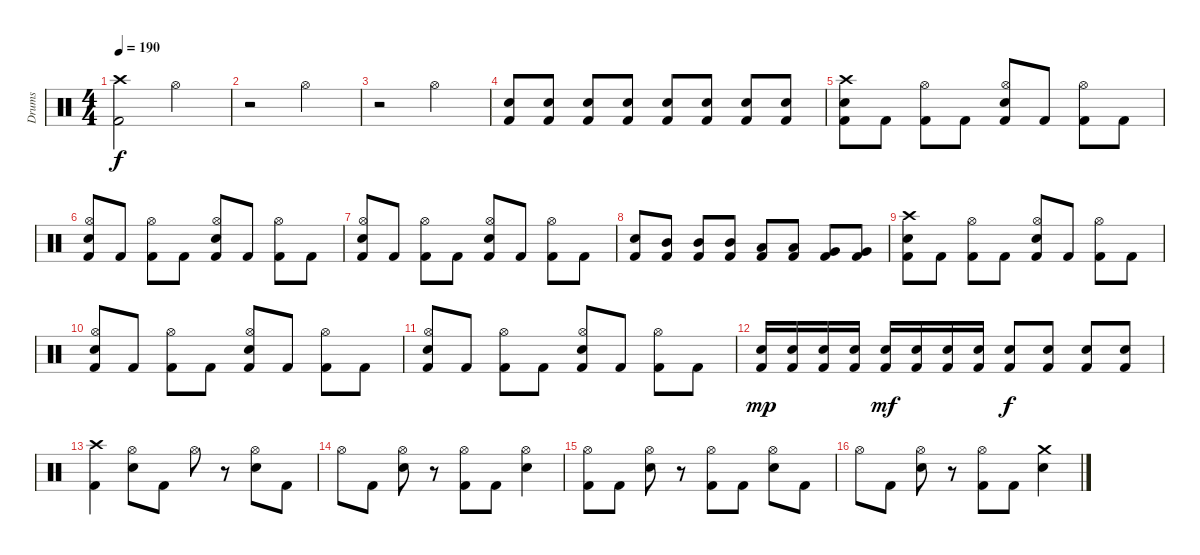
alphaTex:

\track ("Drums" "Drums") {instrument percussion}
\staff {score}
\articulation defaults
\ts (4 4)
\tempo 190
\clef neutral
\ks c
("Crash high (hit)" "Kick (hit) 2").2{dy f} "Hi-Hat (open)".2 |
r.2 "Hi-Hat (open)".2 |
r.2 "Hi-Hat (open)".2 |
("Snare (hit) 2" "Kick (hit) 2").8 ("Snare (hit) 2" "Kick (hit) 2").8 ("Snare (hit) 2" "Kick (hit) 2").8 ("Snare (hit) 2" "Kick (hit) 2").8 ("Snare (hit) 2" "Kick (hit) 2").8 ("Snare (hit) 2" "Kick (hit) 2").8 ("Snare (hit) 2" "Kick (hit) 2").8 ("Snare (hit) 2" "Kick (hit) 2").8 |
("Crash high (hit)" "Snare (hit) 2" "Kick (hit) 2").8 "Kick (hit) 2".8 ("Hi-Hat (open)" "Kick (hit) 2").8 "Kick (hit) 2".8 ("Hi-Hat (open)" "Snare (hit) 2" "Kick (hit) 2").8 "Kick (hit) 2".8 ("Hi-Hat (open)" "Kick (hit) 2").8 "Kick (hit) 2".8 |
("Hi-Hat (open)" "Snare (hit) 2" "Kick (hit) 2").8 "Kick (hit) 2".8 ("Hi-Hat (open)" "Kick (hit) 2").8 "Kick (hit) 2".8 ("Hi-Hat (open)" "Snare (hit) 2" "Kick (hit) 2").8 "Kick (hit) 2".8 ("Hi-Hat (open)" "Kick (hit) 2").8 "Kick (hit) 2".8 |
("Hi-Hat (open)" "Snare (hit) 2" "Kick (hit) 2").8 "Kick (hit) 2".8 ("Hi-Hat (open)" "Kick (hit) 2").8 "Kick (hit) 2".8 ("Hi-Hat (open)" "Snare (hit) 2" "Kick (hit) 2").8 "Kick (hit) 2".8 ("Hi-Hat (open)" "Kick (hit) 2").8 "Kick (hit) 2".8 |
("Snare (hit) 2" "Kick (hit) 2").8 ("Mid Tom (hit)" "Kick (hit) 2").8 ("Mid Tom (hit)" "Kick (hit) 2").8 ("Mid Tom (hit)" "Kick (hit) 2").8 ("Low Tom (hit)" "Kick (hit) 2").8 ("Low Tom (hit)" "Kick (hit) 2").8 ("Very Low Tom (hit)" "Kick (hit) 2").8 ("Very Low Tom (hit)" "Kick (hit) 2").8 |
("Crash high (hit)" "Snare (hit) 2" "Kick (hit) 2").8 "Kick (hit) 2".8 ("Hi-Hat (open)" "Kick (hit) 2").8 "Kick (hit) 2".8 ("Hi-Hat (open)" "Snare (hit) 2" "Kick (hit) 2").8 "Kick (hit) 2".8 ("Hi-Hat (open)" "Kick (hit) 2").8 "Kick (hit) 2".8 |
("Hi-Hat (open)" "Snare (hit) 2" "Kick (hit) 2").8 "Kick (hit) 2".8 ("Hi-Hat (open)" "Kick (hit) 2").8 "Kick (hit) 2".8 ("Hi-Hat (open)" "Snare (hit) 2" "Kick (hit) 2").8 "Kick (hit) 2".8 ("Hi-Hat (open)" "Kick (hit) 2").8 "Kick (hit) 2".8 |
("Hi-Hat (open)" "Snare (hit) 2" "Kick (hit) 2").8 "Kick (hit) 2".8 ("Hi-Hat (open)" "Kick (hit) 2").8 "Kick (hit) 2".8 ("Hi-Hat (open)" "Snare (hit) 2" "Kick (hit) 2").8 "Kick (hit) 2".8 ("Hi-Hat (open)" "Kick (hit) 2").8 "Kick (hit) 2".8 |
("Snare (hit) 2" "Kick (hit) 2").16{dy mp} ("Snare (hit) 2" "Kick (hit) 2").16 ("Snare (hit) 2" "Kick (hit) 2").16 ("Snare (hit) 2" "Kick (hit) 2").16 ("Snare (hit) 2" "Kick (hit) 2").16{dy mf} ("Snare (hit) 2" "Kick (hit) 2").16 ("Snare (hit) 2" "Kick (hit) 2").16 ("Snare (hit) 2" "Kick (hit) 2").16 ("Snare (hit) 2" "Kick (hit) 2").8{dy f} ("Snare (hit) 2" "Kick (hit) 2").8 ("Snare (hit) 2" "Kick (hit) 2").8 ("Snare (hit) 2" "Kick (hit) 2").8 |
("Crash high (hit)" "Kick (hit) 2").4 ("Hi-Hat (open)" "Snare (hit) 2").8 "Kick (hit) 2".8 "Hi-Hat (open)".8 r.8 ("Hi-Hat (open)" "Snare (hit) 2").8 "Kick (hit) 2".8 |
"Hi-Hat (open)".8 "Kick (hit) 2".8 ("Hi-Hat (open)" "Snare (hit) 2").8 r.8 ("Hi-Hat (open)" "Kick (hit) 2").8 "Kick (hit) 2".8 ("Hi-Hat (open)" "Snare (hit) 2").4 |
("Hi-Hat (open)" "Kick (hit) 2").8 "Kick (hit) 2".8 ("Hi-Hat (open)" "Snare (hit) 2").8 r.8 ("Hi-Hat (open)" "Kick (hit) 2").8 "Kick (hit) 2".8 ("Hi-Hat (open)" "Snare (hit) 2").8 "Kick (hit) 2".8 |
"Hi-Hat (open)".8 "Kick (hit) 2".8 ("Hi-Hat (open)" "Snare (hit) 2").8 r.8 ("Hi-Hat (open)" "Kick (hit) 2").8 "Kick (hit) 2".8 ("Crash medium (hit)" "Snare (hit) 2").4
